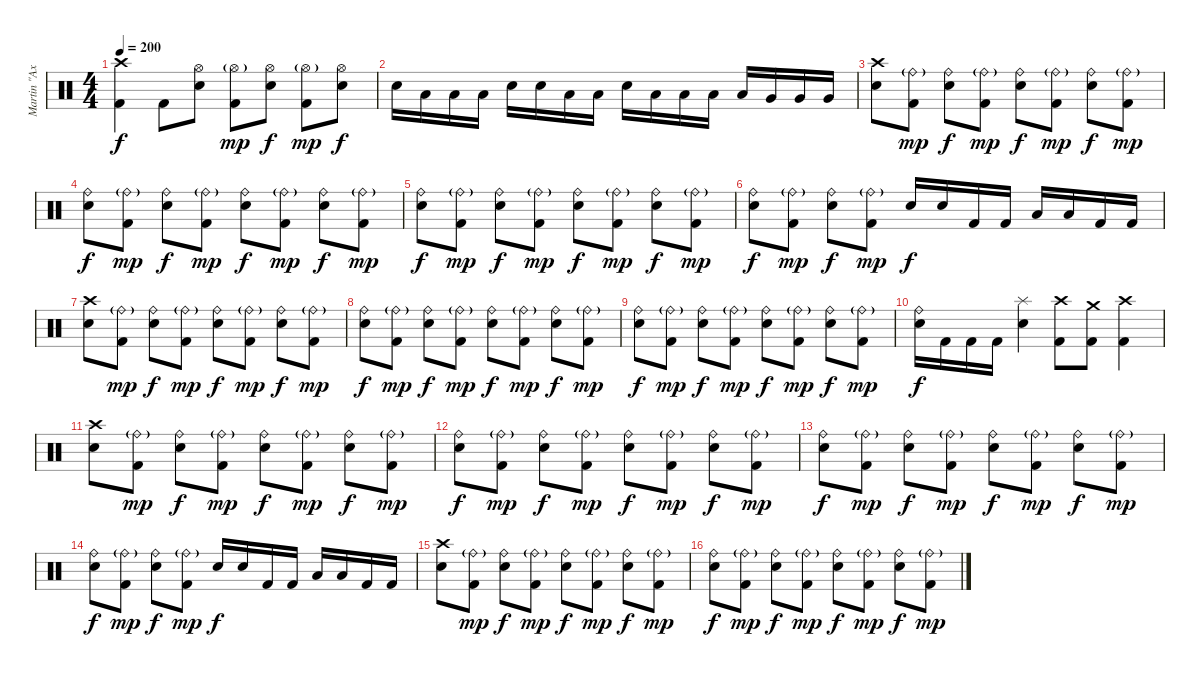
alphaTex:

\track ("Martin \"Axe\" Axenrot" "Martin \"Ax") {instrument percussion}
\staff {score}
\articulation defaults
\ts (4 4)
\tempo 200
\clef neutral
\ks c
("Crash high (hit)" "Kick (hit) 2").4{dy f} "Kick (hit) 2".8 ("Hi-Hat (open)" "Electric Snare (hit)").8 ("Hi-Hat (open)"{g} "Kick (hit) 2").8{dy mp} ("Hi-Hat (open)" "Electric Snare (hit)").8{dy f} ("Hi-Hat (open)"{g} "Kick (hit) 2").8{dy mp} ("Hi-Hat (open)" "Electric Snare (hit)").8{dy f} |
"Electric Snare (hit)".16 "Low Tom (hit)".16 "Low Tom (hit)".16 "Low Tom (hit)".16 "Electric Snare (hit)".16 "Electric Snare (hit)".16 "Low Tom (hit)".16 "Low Tom (hit)".16 "Electric Snare (hit)".16 "Low Tom (hit)".16 "Low Tom (hit)".16 "Low Tom (hit)".16 "Low Tom (hit)".16 "Very Low Tom (hit)".16 "Very Low Tom (hit)".16 "Very Low Tom (hit)".16 |
("Crash high (hit)" "Electric Snare (hit)").8 ("Ride (bell)"{g} "Kick (hit) 2").8{dy mp} ("Ride (bell)" "Electric Snare (hit)").8{dy f} ("Ride (bell)"{g} "Kick (hit) 2").8{dy mp} ("Ride (bell)" "Electric Snare (hit)").8{dy f} ("Ride (bell)"{g} "Kick (hit) 2").8{dy mp} ("Ride (bell)" "Electric Snare (hit)").8{dy f} ("Ride (bell)"{g} "Kick (hit) 2").8{dy mp} |
("Ride (bell)" "Electric Snare (hit)").8{dy f} ("Ride (bell)"{g} "Kick (hit) 2").8{dy mp} ("Ride (bell)" "Electric Snare (hit)").8{dy f} ("Ride (bell)"{g} "Kick (hit) 2").8{dy mp} ("Ride (bell)" "Electric Snare (hit)").8{dy f} ("Ride (bell)"{g} "Kick (hit) 2").8{dy mp} ("Ride (bell)" "Electric Snare (hit)").8{dy f} ("Ride (bell)"{g} "Kick (hit) 2").8{dy mp} |
("Ride (bell)" "Electric Snare (hit)").8{dy f} ("Ride (bell)"{g} "Kick (hit) 2").8{dy mp} ("Ride (bell)" "Electric Snare (hit)").8{dy f} ("Ride (bell)"{g} "Kick (hit) 2").8{dy mp} ("Ride (bell)" "Electric Snare (hit)").8{dy f} ("Ride (bell)"{g} "Kick (hit) 2").8{dy mp} ("Ride (bell)" "Electric Snare (hit)").8{dy f} ("Ride (bell)"{g} "Kick (hit) 2").8{dy mp} |
("Ride (bell)" "Electric Snare (hit)").8{dy f} ("Ride (bell)"{g} "Kick (hit) 2").8{dy mp} ("Ride (bell)" "Electric Snare (hit)").8{dy f} ("Ride (bell)"{g} "Kick (hit) 2").8{dy mp} "Electric Snare (hit)".16{dy f} "Electric Snare (hit)".16 "Kick (hit) 2".16 "Kick (hit) 2".16 "Low Floor Tom (hit)".16 "Low Tom (hit)".16 "Kick (hit) 2".16 "Kick (hit) 2".16 |
("Crash high (hit)" "Electric Snare (hit)").8 ("Ride (bell)"{g} "Kick (hit) 2").8{dy mp} ("Ride (bell)" "Electric Snare (hit)").8{dy f} ("Ride (bell)"{g} "Kick (hit) 2").8{dy mp} ("Ride (bell)" "Electric Snare (hit)").8{dy f} ("Ride (bell)"{g} "Kick (hit) 2").8{dy mp} ("Ride (bell)" "Electric Snare (hit)").8{dy f} ("Ride (bell)"{g} "Kick (hit) 2").8{dy mp} |
("Ride (bell)" "Electric Snare (hit)").8{dy f} ("Ride (bell)"{g} "Kick (hit) 2").8{dy mp} ("Ride (bell)" "Electric Snare (hit)").8{dy f} ("Ride (bell)"{g} "Kick (hit) 2").8{dy mp} ("Ride (bell)" "Electric Snare (hit)").8{dy f} ("Ride (bell)"{g} "Kick (hit) 2").8{dy mp} ("Ride (bell)" "Electric Snare (hit)").8{dy f} ("Ride (bell)"{g} "Kick (hit) 2").8{dy mp} |
("Ride (bell)" "Electric Snare (hit)").8{dy f} ("Ride (bell)"{g} "Kick (hit) 2").8{dy mp} ("Ride (bell)" "Electric Snare (hit)").8{dy f} ("Ride (bell)"{g} "Kick (hit) 2").8{dy mp} ("Ride (bell)" "Electric Snare (hit)").8{dy f} ("Ride (bell)"{g} "Kick (hit) 2").8{dy mp} ("Ride (bell)" "Electric Snare (hit)").8{dy f} ("Ride (bell)"{g} "Kick (hit) 2").8{dy mp} |
("Ride (bell)" "Electric Snare (hit)").16{dy f} "Kick (hit) 2".16 "Kick (hit) 2".16 "Kick (hit) 2".16 ("Splash (hit)" "Electric Snare (hit)").4 ("Crash high (hit)" "Kick (hit) 2").8 ("Crash medium (hit)" "Kick (hit) 2").8 ("Crash high (hit)" "Kick (hit) 2").4 |
("Crash high (hit)" "Electric Snare (hit)").8 ("Ride (bell)"{g} "Kick (hit) 2").8{dy mp} ("Ride (bell)" "Electric Snare (hit)").8{dy f} ("Ride (bell)"{g} "Kick (hit) 2").8{dy mp} ("Ride (bell)" "Electric Snare (hit)").8{dy f} ("Ride (bell)"{g} "Kick (hit) 2").8{dy mp} ("Ride (bell)" "Electric Snare (hit)").8{dy f} ("Ride (bell)"{g} "Kick (hit) 2").8{dy mp} |
("Ride (bell)" "Electric Snare (hit)").8{dy f} ("Ride (bell)"{g} "Kick (hit) 2").8{dy mp} ("Ride (bell)" "Electric Snare (hit)").8{dy f} ("Ride (bell)"{g} "Kick (hit) 2").8{dy mp} ("Ride (bell)" "Electric Snare (hit)").8{dy f} ("Ride (bell)"{g} "Kick (hit) 2").8{dy mp} ("Ride (bell)" "Electric Snare (hit)").8{dy f} ("Ride (bell)"{g} "Kick (hit) 2").8{dy mp} |
("Ride (bell)" "Electric Snare (hit)").8{dy f} ("Ride (bell)"{g} "Kick (hit) 2").8{dy mp} ("Ride (bell)" "Electric Snare (hit)").8{dy f} ("Ride (bell)"{g} "Kick (hit) 2").8{dy mp} ("Ride (bell)" "Electric Snare (hit)").8{dy f} ("Ride (bell)"{g} "Kick (hit) 2").8{dy mp} ("Ride (bell)" "Electric Snare (hit)").8{dy f} ("Ride (bell)"{g} "Kick (hit) 2").8{dy mp} |
("Ride (bell)" "Electric Snare (hit)").8{dy f} ("Ride (bell)"{g} "Kick (hit) 2").8{dy mp} ("Ride (bell)" "Electric Snare (hit)").8{dy f} ("Ride (bell)"{g} "Kick (hit) 2").8{dy mp} "Electric Snare (hit)".16{dy f} "Electric Snare (hit)".16 "Kick (hit) 2".16 "Kick (hit) 2".16 "Low Floor Tom (hit)".16 "Low Tom (hit)".16 "Kick (hit) 2".16 "Kick (hit) 2".16 |
("Crash high (hit)" "Electric Snare (hit)").8 ("Ride (bell)"{g} "Kick (hit) 2").8{dy mp} ("Ride (bell)" "Electric Snare (hit)").8{dy f} ("Ride (bell)"{g} "Kick (hit) 2").8{dy mp} ("Ride (bell)" "Electric Snare (hit)").8{dy f} ("Ride (bell)"{g} "Kick (hit) 2").8{dy mp} ("Ride (bell)" "Electric Snare (hit)").8{dy f} ("Ride (bell)"{g} "Kick (hit) 2").8{dy mp} |
("Ride (bell)" "Electric Snare (hit)").8{dy f} ("Ride (bell)"{g} "Kick (hit) 2").8{dy mp} ("Ride (bell)" "Electric Snare (hit)").8{dy f} ("Ride (bell)"{g} "Kick (hit) 2").8{dy mp} ("Ride (bell)" "Electric Snare (hit)").8{dy f} ("Ride (bell)"{g} "Kick (hit) 2").8{dy mp} ("Ride (bell)" "Electric Snare (hit)").8{dy f} ("Ride (bell)"{g} "Kick (hit) 2").8{dy mp}
